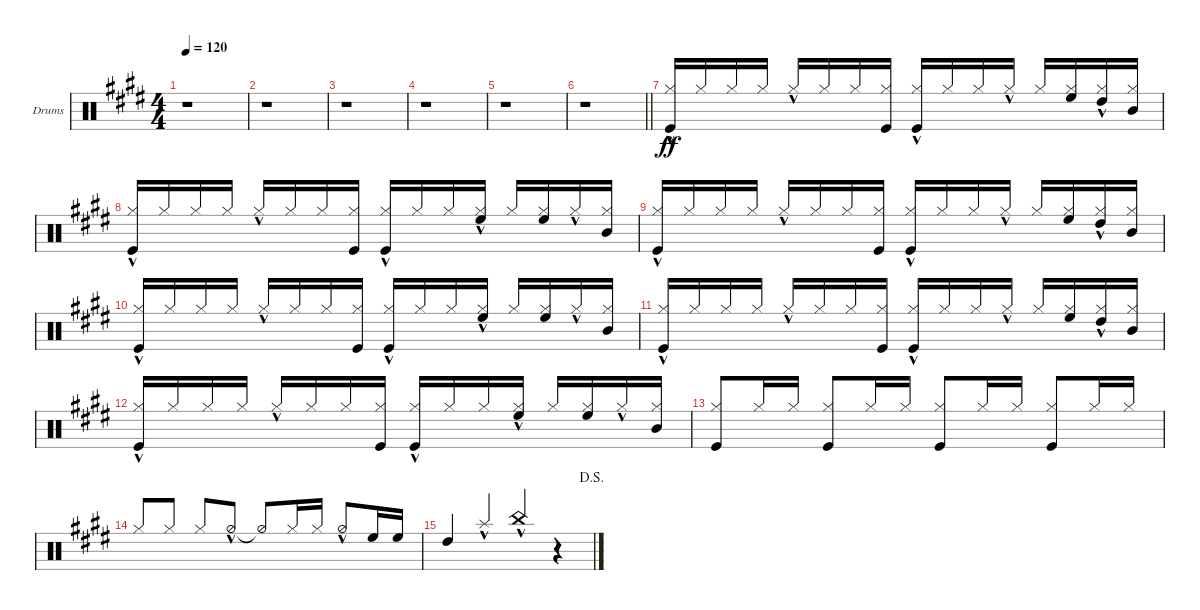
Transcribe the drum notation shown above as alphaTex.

\defaultSystemsLayout 4
\bracketExtendMode groupsimilarinstruments
\firstSystemTrackNameOrientation horizontal
\otherSystemsTrackNameOrientation horizontal
\track ("Drumkit" "Drums") {instrument percussion}
\staff {score}
\articulation defaults
\ts (4 4)
\tempo 120
\clef neutral
\ks e
r.1{dy ff} |
r.1 |
r.1 |
r.1 |
r.1 |
\barLineRight lightlight
r.1 |
\scale
0.510282 ("Hi-Hat (closed)"{hac} "Kick (hit)").16{beam invert} "Hi-Hat (closed)".16 "Hi-Hat (closed)".16 "Hi-Hat (closed)".16 "Hi-Hat (closed)"{hac}.16 "Hi-Hat (closed)".16 "Hi-Hat (closed)".16 ("Hi-Hat (closed)" "Kick (hit)").16 ("Hi-Hat (closed)"{hac} "Kick (hit)").16{beam invert} "Hi-Hat (closed)".16 "Hi-Hat (closed)".16 "Hi-Hat (closed)"{hac}.16 "Hi-Hat (closed)".16{beam invert} ("Hi-Hat (closed)" "High Floor Tom (hit)").16 ("Hi-Hat (closed)"{hac} "High Tom (hit)").16 ("Hi-Hat (closed)" "Mid Tom (hit)").16 |
\scale
0.489556 ("Hi-Hat (closed)"{hac} "Kick (hit)").16{beam invert} "Hi-Hat (closed)".16 "Hi-Hat (closed)".16 "Hi-Hat (closed)".16 "Hi-Hat (closed)"{hac}.16 "Hi-Hat (closed)".16 "Hi-Hat (closed)".16 ("Hi-Hat (closed)" "Kick (hit)").16 ("Hi-Hat (closed)"{hac} "Kick (hit)").16{beam invert} "Hi-Hat (closed)".16 "Hi-Hat (closed)".16 ("Hi-Hat (closed)"{hac} "High Floor Tom (hit)").16 "Hi-Hat (closed)".16{beam invert} ("Hi-Hat (closed)" "High Floor Tom (hit)").16 "Hi-Hat (closed)"{hac}.16 ("Hi-Hat (closed)" "Mid Tom (hit)").16 |
\scale
0.51457 ("Hi-Hat (closed)"{hac} "Kick (hit)").16{beam invert} "Hi-Hat (closed)".16 "Hi-Hat (closed)".16 "Hi-Hat (closed)".16 "Hi-Hat (closed)"{hac}.16 "Hi-Hat (closed)".16 "Hi-Hat (closed)".16 ("Hi-Hat (closed)" "Kick (hit)").16 ("Hi-Hat (closed)"{hac} "Kick (hit)").16{beam invert} "Hi-Hat (closed)".16 "Hi-Hat (closed)".16 "Hi-Hat (closed)"{hac}.16 "Hi-Hat (closed)".16{beam invert} ("Hi-Hat (closed)" "High Floor Tom (hit)").16 ("Hi-Hat (closed)"{hac} "High Tom (hit)").16 ("Hi-Hat (closed)" "Mid Tom (hit)").16 |
\scale
0.485287 ("Hi-Hat (closed)"{hac} "Kick (hit)").16{beam invert} "Hi-Hat (closed)".16 "Hi-Hat (closed)".16 "Hi-Hat (closed)".16 "Hi-Hat (closed)"{hac}.16 "Hi-Hat (closed)".16 "Hi-Hat (closed)".16 ("Hi-Hat (closed)" "Kick (hit)").16 ("Hi-Hat (closed)"{hac} "Kick (hit)").16{beam invert} "Hi-Hat (closed)".16 "Hi-Hat (closed)".16 ("Hi-Hat (closed)"{hac} "High Floor Tom (hit)").16 "Hi-Hat (closed)".16{beam invert} ("Hi-Hat (closed)" "High Floor Tom (hit)").16 "Hi-Hat (closed)"{hac}.16 ("Hi-Hat (closed)" "Mid Tom (hit)").16 |
("Hi-Hat (closed)"{hac} "Kick (hit)").16{beam invert} "Hi-Hat (closed)".16 "Hi-Hat (closed)".16 "Hi-Hat (closed)".16 "Hi-Hat (closed)"{hac}.16 "Hi-Hat (closed)".16 "Hi-Hat (closed)".16 ("Hi-Hat (closed)" "Kick (hit)").16 ("Hi-Hat (closed)"{hac} "Kick (hit)").16{beam invert} "Hi-Hat (closed)".16 "Hi-Hat (closed)".16 "Hi-Hat (closed)"{hac}.16 "Hi-Hat (closed)".16{beam invert} ("Hi-Hat (closed)" "High Floor Tom (hit)").16 ("Hi-Hat (closed)"{hac} "High Tom (hit)").16 ("Hi-Hat (closed)" "Mid Tom (hit)").16 |
("Hi-Hat (closed)"{hac} "Kick (hit)").16{beam invert} "Hi-Hat (closed)".16 "Hi-Hat (closed)".16 "Hi-Hat (closed)".16 "Hi-Hat (closed)"{hac}.16 "Hi-Hat (closed)".16 "Hi-Hat (closed)".16 ("Hi-Hat (closed)" "Kick (hit)").16 ("Hi-Hat (closed)"{hac} "Kick (hit)").16{beam invert} "Hi-Hat (closed)".16 "Hi-Hat (closed)".16 ("Hi-Hat (closed)"{hac} "High Floor Tom (hit)").16 "Hi-Hat (closed)".16{beam invert} ("Hi-Hat (closed)" "High Floor Tom (hit)").16 "Hi-Hat (closed)"{hac}.16 ("Hi-Hat (closed)" "Mid Tom (hit)").16 |
("Hi-Hat (closed)" "Kick (hit)").8{beam invert} "Hi-Hat (closed)".16 "Hi-Hat (closed)".16 ("Hi-Hat (closed)" "Kick (hit)").8{beam invert} "Hi-Hat (closed)".16 "Hi-Hat (closed)".16 ("Hi-Hat (closed)" "Kick (hit)").8{beam invert} "Hi-Hat (closed)".16 "Hi-Hat (closed)".16 ("Hi-Hat (closed)" "Kick (hit)").8{beam invert} "Hi-Hat (closed)".16 "Hi-Hat (closed)".16 |
"Hi-Hat (closed)".8{beam invert} "Hi-Hat (closed)".8 "Hi-Hat (closed)".8{beam invert} "Hi-Hat (half)"{hac}.8 "Hi-Hat (half)"{t}.8{beam invert} "Hi-Hat (closed)".16 "Hi-Hat (closed)".16 "Hi-Hat (half)"{hac}.8{beam invert} "High Floor Tom (hit)".16 "High Floor Tom (hit)".16 |
\jump dalsegno "High Tom (hit)".4{beam invert} "Splash (hit)"{hac}.4{beam invert} "China (hit)"{hac}.4{beam invert}
r.4{beam invert}
